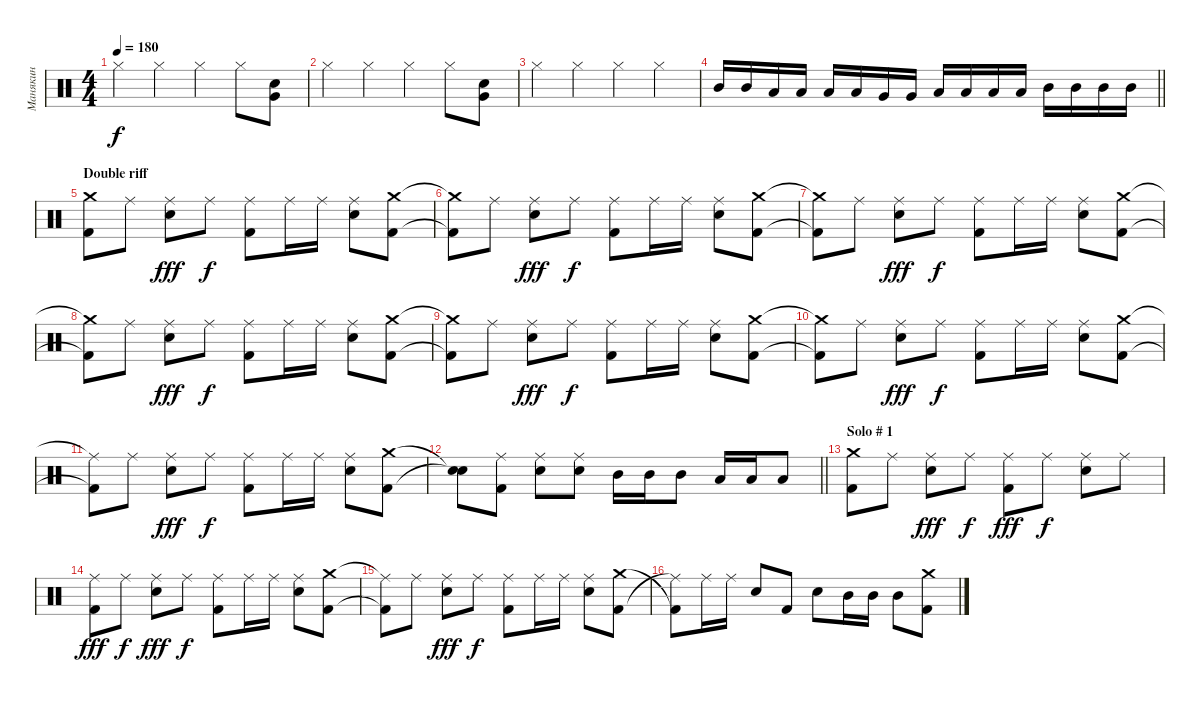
\track ("Манякин" "Манякин") {instrument percussion}
\staff {score}
\articulation defaults
\ts (4 4)
\tempo 180
\clef neutral
\ks c "Hi-Hat (closed)".4{dy f} "Hi-Hat (closed)".4 "Hi-Hat (closed)".4 "Hi-Hat (closed)".8
("Snare (hit) 2" "Very Low Tom (hit)").8 |
"Hi-Hat (closed)".4 "Hi-Hat (closed)".4 "Hi-Hat (closed)".4 "Hi-Hat (closed)".8 ("Snare (hit) 2" "Very Low Tom (hit)").8 |
"Hi-Hat (closed)".4 "Hi-Hat (closed)".4 "Hi-Hat (closed)".4 "Hi-Hat (closed)".4 |
\barLineRight lightlight "Mid Tom (hit)".16 "Mid Tom (hit)".16 "Low Tom (hit)".16 "Low Tom (hit)".16 "Low Tom (hit)".16 "Low Tom (hit)".16 "Very Low Tom (hit)".16 "Very Low Tom (hit)".16 "Low Tom (hit)".16 "Low Tom (hit)".16 "Low Tom (hit)".16 "Low Tom (hit)".16 "Mid Tom (hit)".16 "Mid Tom (hit)".16 "Mid Tom (hit)".16 "Mid Tom (hit)".16
|
\section ("" "Double riff")
("Kick (hit) 2" "Crash medium (hit)").8 "Ride (middle)".8 ("Snare (hit) 2" "Ride (middle)").8{dy fff} "Ride (middle)".8{dy f} ("Kick (hit) 2" "Ride (middle)").8 "Ride (middle)".16 "Ride (middle)".16 ("Snare (hit) 2" "Ride (middle)").8 ("Kick (hit) 2" "Crash medium (hit)").8 |
("Kick (hit) 2"{t} "Crash medium (hit)"{t}).8 "Ride (middle)".8 ("Snare (hit) 2" "Ride (middle)").8{dy fff} "Ride (middle)".8{dy f} ("Kick (hit) 2" "Ride (middle)").8 "Ride (middle)".16 "Ride (middle)".16 ("Snare (hit) 2" "Ride (middle)").8 ("Kick (hit) 2" "Crash medium (hit)").8 |
("Kick (hit) 2"{t} "Crash medium (hit)"{t}).8 "Ride (middle)".8 ("Snare (hit) 2" "Ride (middle)").8{dy fff} "Ride (middle)".8{dy f} ("Kick (hit) 2" "Ride (middle)").8 "Ride (middle)".16 "Ride (middle)".16 ("Snare (hit) 2" "Ride (middle)").8 ("Kick (hit) 2" "Crash medium (hit)").8 |
("Kick (hit) 2"{t} "Crash medium (hit)"{t}).8 "Ride (middle)".8 ("Snare (hit) 2" "Ride (middle)").8{dy fff} "Ride (middle)".8{dy f} ("Kick (hit) 2" "Ride (middle)").8 "Ride (middle)".16 "Ride (middle)".16 ("Snare (hit) 2" "Ride (middle)").8 ("Kick (hit) 2" "Crash medium (hit)").8 |
("Kick (hit) 2"{t} "Crash medium (hit)"{t}).8 "Ride (middle)".8 ("Snare (hit) 2" "Ride (middle)").8{dy fff} "Ride (middle)".8{dy f} ("Kick (hit) 2" "Ride (middle)").8 "Ride (middle)".16 "Ride (middle)".16 ("Snare (hit) 2" "Ride (middle)").8 ("Kick (hit) 2" "Crash medium (hit)").8 |
("Kick (hit) 2"{t} "Crash medium (hit)"{t}).8 "Ride (middle)".8 ("Snare (hit) 2" "Ride (middle)").8{dy fff} "Ride (middle)".8{dy f} ("Kick (hit) 2" "Ride (middle)").8 "Ride (middle)".16 "Ride (middle)".16 ("Snare (hit) 2" "Ride (middle)").8 ("Kick (hit) 2" "Crash medium (hit)").8 |
("Kick (hit) 2"{t} "Ride (middle)"{t}).8 "Ride (middle)".8 ("Snare (hit) 2" "Ride (middle)").8{dy fff} "Ride (middle)".8{dy f} ("Kick (hit) 2" "Ride (middle)").8 "Ride (middle)".16 "Ride (middle)".16 ("Snare (hit) 2" "Ride (middle)").8 ("Kick (hit) 2" "Crash medium (hit)").8 |
\barLineRight lightlight
("Snare (hit)"{t} "Snare (hit)"{t}).8 ("Kick (hit) 2" "Ride (middle)").8 ("Snare (hit) 2" "Ride (middle)").8 ("Snare (hit) 2" "Ride (middle)").8 "Mid Tom (hit)".16 "Mid Tom (hit)".16 "Mid Tom (hit)".8 "Low Tom (hit)".16 "Low Tom (hit)".16 "Low Tom (hit)".8 |
\section ("" "Solo # 1")
("Kick (hit) 2" "Crash medium (hit)").8 "Ride (middle)".8 ("Snare (hit) 2" "Ride (middle)").8{dy fff} "Ride (middle)".8{dy f} ("Kick (hit) 2" "Ride (middle)").8{dy fff} "Ride (middle)".8{dy f} ("Ride (middle)" "Snare (hit) 2").8 "Ride (middle)".8 |
("Kick (hit) 2" "Ride (middle)").8{dy fff} "Ride (middle)".8{dy f} ("Snare (hit) 2" "Ride (middle)").8{dy fff} "Ride (middle)".8{dy f} ("Kick (hit) 2" "Ride (middle)").8 "Ride (middle)".16 "Ride (middle)".16 ("Snare (hit) 2" "Ride (middle)").8 ("Kick (hit) 2" "Crash medium (hit)").8 |
("Kick (hit) 2"{t} "Ride (middle)"{t}).8 "Ride (middle)".8 ("Snare (hit) 2" "Ride (middle)").8{dy fff} "Ride (middle)".8{dy f} ("Kick (hit) 2" "Ride (middle)").8 "Ride (middle)".16 "Ride (middle)".16 ("Snare (hit) 2" "Ride (middle)").8 ("Kick (hit) 2" "Crash medium (hit)").8 |
("Ride (middle)"{t} "Kick (hit) 2"{t}).8 "Ride (middle)".16 "Ride (middle)".16 "Snare (hit) 2".8 "Kick (hit) 2".8 "Snare (hit) 2".8 "Mid Tom (hit)".16 "Mid Tom (hit)".16 "Mid Tom (hit)".8 ("Kick (hit) 2" "Crash medium (hit)").8
